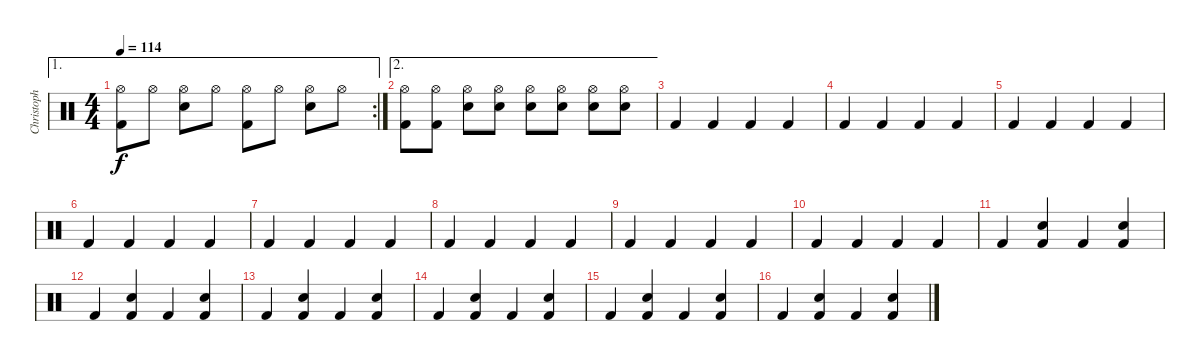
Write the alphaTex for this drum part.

\track ("Christoph" "Christoph") {instrument percussion}
\staff {score}
\articulation defaults
\ae 1
\rc 2
\ts (4 4)
\tempo 114
\clef neutral
\ks c
("Hi-Hat (open)" "Kick (hit) 2").8{dy f} "Hi-Hat (open)".8 ("Hi-Hat (open)" "Electric Snare (hit)").8 "Hi-Hat (open)".8 ("Hi-Hat (open)" "Kick (hit) 2").8 "Hi-Hat (open)".8 ("Hi-Hat (open)" "Electric Snare (hit)").8 "Hi-Hat (open)".8 |
\ae 2
("Hi-Hat (open)" "Kick (hit) 2").8 ("Hi-Hat (open)" "Kick (hit) 2").8 ("Hi-Hat (open)" "Electric Snare (hit)").8 ("Hi-Hat (open)" "Electric Snare (hit)").8 ("Hi-Hat (open)" "Electric Snare (hit)").8 ("Hi-Hat (open)" "Electric Snare (hit)").8 ("Hi-Hat (open)" "Electric Snare (hit)").8 ("Hi-Hat (open)" "Electric Snare (hit)").8 |
"Kick (hit) 2".4 "Kick (hit) 2".4 "Kick (hit) 2".4 "Kick (hit) 2".4 |
"Kick (hit) 2".4 "Kick (hit) 2".4 "Kick (hit) 2".4 "Kick (hit) 2".4 |
"Kick (hit) 2".4 "Kick (hit) 2".4 "Kick (hit) 2".4 "Kick (hit) 2".4 |
"Kick (hit) 2".4 "Kick (hit) 2".4 "Kick (hit) 2".4 "Kick (hit) 2".4 |
"Kick (hit) 2".4 "Kick (hit) 2".4 "Kick (hit) 2".4 "Kick (hit) 2".4 |
"Kick (hit) 2".4 "Kick (hit) 2".4 "Kick (hit) 2".4 "Kick (hit) 2".4 |
"Kick (hit) 2".4 "Kick (hit) 2".4 "Kick (hit) 2".4 "Kick (hit) 2".4 |
"Kick (hit) 2".4 "Kick (hit) 2".4 "Kick (hit) 2".4 "Kick (hit) 2".4 |
"Kick (hit) 2".4 ("Electric Snare (hit)" "Kick (hit) 2").4 "Kick (hit) 2".4 ("Electric Snare (hit)" "Kick (hit) 2").4 |
"Kick (hit) 2".4 ("Electric Snare (hit)" "Kick (hit) 2").4 "Kick (hit) 2".4 ("Electric Snare (hit)" "Kick (hit) 2").4 |
"Kick (hit) 2".4 ("Electric Snare (hit)" "Kick (hit) 2").4 "Kick (hit) 2".4 ("Electric Snare (hit)" "Kick (hit) 2").4 |
"Kick (hit) 2".4 ("Electric Snare (hit)" "Kick (hit) 2").4 "Kick (hit) 2".4 ("Electric Snare (hit)" "Kick (hit) 2").4 |
"Kick (hit) 2".4 ("Electric Snare (hit)" "Kick (hit) 2").4 "Kick (hit) 2".4 ("Electric Snare (hit)" "Kick (hit) 2").4 |
"Kick (hit) 2".4 ("Electric Snare (hit)" "Kick (hit) 2").4 "Kick (hit) 2".4 ("Electric Snare (hit)" "Kick (hit) 2").4
